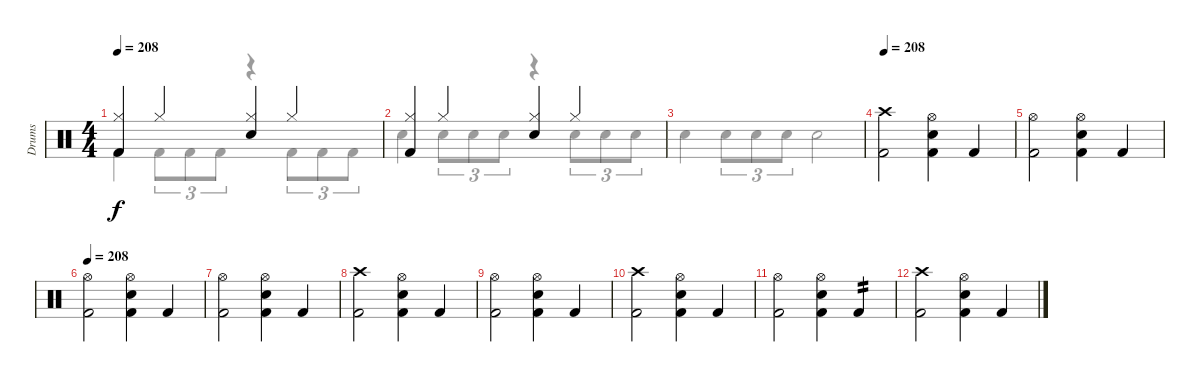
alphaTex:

\track ("Drums" "Drums") {instrument percussion}
\staff {score}
\articulation defaults
\voice
\ts (4 4)
\tempo 208
\clef neutral
\ks c
("Hi-Hat (closed)" "Kick (hit) 2").4{dy f} "Hi-Hat (closed)".4 ("Hi-Hat (closed)" "Electric Snare (hit)").4 "Hi-Hat (closed)".4 |
("Hi-Hat (closed)" "Kick (hit) 2").4 "Hi-Hat (closed)".4 ("Hi-Hat (closed)" "Electric Snare (hit)").4 "Hi-Hat (closed)".4 |
|
\tempo 208
("Crash high (hit)" "Kick (hit) 2").2 ("Hi-Hat (open)" "Electric Snare (hit)" "Kick (hit) 2").4 "Kick (hit) 2".4 |
("Hi-Hat (open)" "Kick (hit) 2").2 ("Hi-Hat (open)" "Electric Snare (hit)" "Kick (hit) 2").4 "Kick (hit) 2".4 |
\tempo 208
("Hi-Hat (open)" "Kick (hit) 2").2 ("Hi-Hat (open)" "Electric Snare (hit)" "Kick (hit) 2").4 "Kick (hit) 2".4 |
("Hi-Hat (open)" "Kick (hit) 2").2 ("Hi-Hat (open)" "Electric Snare (hit)" "Kick (hit) 2").4 "Kick (hit) 2".4 |
("Crash high (hit)" "Kick (hit) 2").2 ("Hi-Hat (open)" "Electric Snare (hit)" "Kick (hit) 2").4 "Kick (hit) 2".4 |
("Hi-Hat (open)" "Kick (hit) 2").2 ("Hi-Hat (open)" "Electric Snare (hit)" "Kick (hit) 2").4 "Kick (hit) 2".4 |
("Crash high (hit)" "Kick (hit) 2").2 ("Hi-Hat (open)" "Electric Snare (hit)" "Kick (hit) 2").4 "Kick (hit) 2".4 |
("Hi-Hat (open)" "Kick (hit) 2").2 ("Hi-Hat (open)" "Electric Snare (hit)" "Kick (hit) 2").4 "Kick (hit) 2".4{tp 2} |
("Crash high (hit)" "Kick (hit) 2").2 ("Hi-Hat (open)" "Electric Snare (hit)" "Kick (hit) 2").4 "Kick (hit) 2".4 |
|
|
|
\voice
\clef neutral
\ottava regular
\simile none
\ks c "Kick (hit) 2".4{dy f} "Kick (hit) 2".8{tu (3 2)} "Kick (hit) 2".8{tu (3 2)} "Kick (hit) 2".8{tu (3 2)}
r.4 "Kick (hit) 2".8{tu (3 2)} "Kick (hit) 2".8{tu (3 2)} "Kick (hit) 2".8{tu (3 2)} |
"Electric Snare (hit)".4 "Electric Snare (hit)".8{tu (3 2)} "Electric Snare (hit)".8{tu (3 2)} "Electric Snare (hit)".8{tu (3 2)} r.4 "Electric Snare (hit)".8{tu (3 2)} "Electric Snare (hit)".8{tu (3 2)} "Electric Snare (hit)".8{tu (3 2)} |
"Electric Snare (hit)".4 "Electric Snare (hit)".8{tu (3 2)} "Electric Snare (hit)".8{tu (3 2)} "Electric Snare (hit)".8{tu (3 2)} "Electric Snare (hit)".2 |
|
|
|
|
|
|
|
|
|
|
|
|
